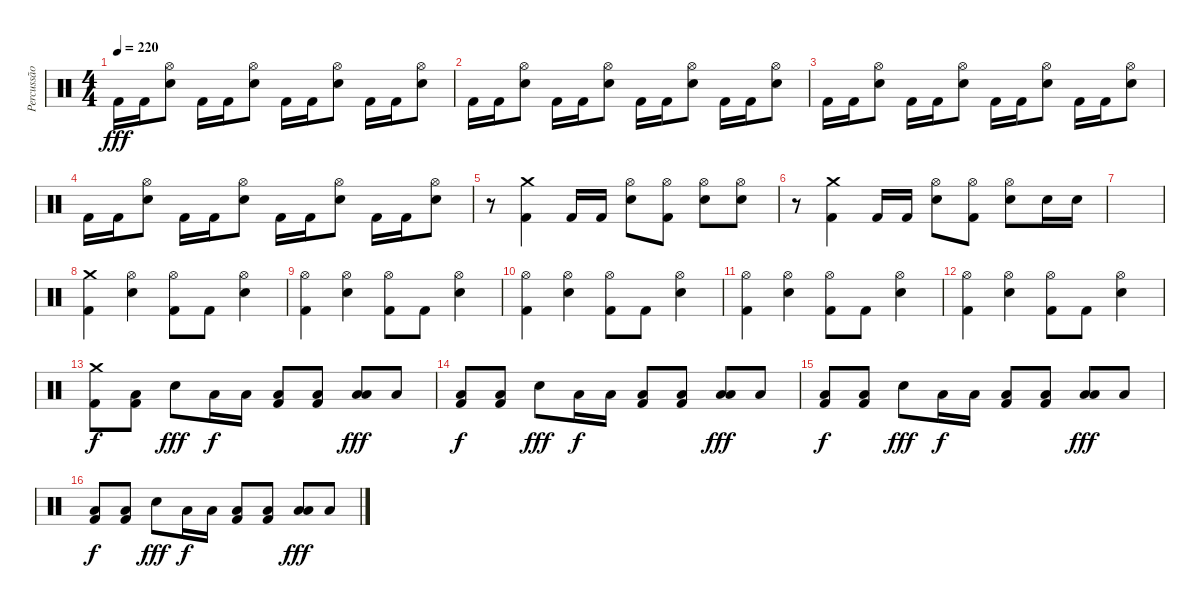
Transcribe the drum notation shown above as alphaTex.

\track ("Percussão" "Percussão") {instrument percussion}
\staff {score}
\articulation defaults
\ts (4 4)
\tempo 220
\clef neutral
\ks c "Kick (hit) 2".16{dy fff} "Kick (hit) 2".16
("Hi-Hat (open)" "Electric Snare (hit)").8 "Kick (hit) 2".16 "Kick (hit) 2".16 ("Hi-Hat (open)" "Electric Snare (hit)").8 "Kick (hit) 2".16 "Kick (hit) 2".16 ("Hi-Hat (open)" "Electric Snare (hit)").8 "Kick (hit) 2".16 "Kick (hit) 2".16 ("Hi-Hat (open)" "Electric Snare (hit)").8 |
"Kick (hit) 2".16 "Kick (hit) 2".16 ("Hi-Hat (open)" "Electric Snare (hit)").8 "Kick (hit) 2".16 "Kick (hit) 2".16 ("Hi-Hat (open)" "Electric Snare (hit)").8 "Kick (hit) 2".16 "Kick (hit) 2".16 ("Hi-Hat (open)" "Electric Snare (hit)").8 "Kick (hit) 2".16 "Kick (hit) 2".16 ("Hi-Hat (open)" "Electric Snare (hit)").8 |
"Kick (hit) 2".16 "Kick (hit) 2".16 ("Hi-Hat (open)" "Electric Snare (hit)").8 "Kick (hit) 2".16 "Kick (hit) 2".16 ("Hi-Hat (open)" "Electric Snare (hit)").8 "Kick (hit) 2".16 "Kick (hit) 2".16 ("Hi-Hat (open)" "Electric Snare (hit)").8 "Kick (hit) 2".16 "Kick (hit) 2".16 ("Hi-Hat (open)" "Electric Snare (hit)").8 |
"Kick (hit) 2".16 "Kick (hit) 2".16 ("Hi-Hat (open)" "Electric Snare (hit)").8 "Kick (hit) 2".16 "Kick (hit) 2".16 ("Hi-Hat (open)" "Electric Snare (hit)").8 "Kick (hit) 2".16 "Kick (hit) 2".16 ("Hi-Hat (open)" "Electric Snare (hit)").8 "Kick (hit) 2".16 "Kick (hit) 2".16 ("Hi-Hat (open)" "Electric Snare (hit)").8 |
r.8 ("Crash medium (hit)" "Kick (hit) 2").4 "Kick (hit) 2".16 "Kick (hit) 2".16 ("Hi-Hat (open)" "Electric Snare (hit)").8 ("Hi-Hat (open)" "Kick (hit) 2").8 ("Hi-Hat (open)" "Electric Snare (hit)").8 ("Hi-Hat (open)" "Electric Snare (hit)").8 |
r.8 ("Crash medium (hit)" "Kick (hit) 2").4 "Kick (hit) 2".16 "Kick (hit) 2".16 ("Hi-Hat (open)" "Electric Snare (hit)").8 ("Hi-Hat (open)" "Kick (hit) 2").8 ("Hi-Hat (open)" "Electric Snare (hit)").8 "Electric Snare (hit)".16 "Electric Snare (hit)".16 |
|
("Crash medium (hit)" "Kick (hit) 2").4 ("Hi-Hat (open)" "Electric Snare (hit)").4 ("Hi-Hat (open)" "Kick (hit) 2").8 "Kick (hit) 2".8 ("Hi-Hat (open)" "Electric Snare (hit)").4 |
("Hi-Hat (open)" "Kick (hit) 2").4 ("Hi-Hat (open)" "Electric Snare (hit)").4 ("Hi-Hat (open)" "Kick (hit) 2").8 "Kick (hit) 2".8 ("Hi-Hat (open)" "Electric Snare (hit)").4 |
("Hi-Hat (open)" "Kick (hit) 2").4 ("Hi-Hat (open)" "Electric Snare (hit)").4 ("Hi-Hat (open)" "Kick (hit) 2").8 "Kick (hit) 2".8 ("Hi-Hat (open)" "Electric Snare (hit)").4 |
("Hi-Hat (open)" "Kick (hit) 2").4 ("Hi-Hat (open)" "Electric Snare (hit)").4 ("Hi-Hat (open)" "Kick (hit) 2").8 "Kick (hit) 2".8 ("Hi-Hat (open)" "Electric Snare (hit)").4 |
("Hi-Hat (open)" "Kick (hit) 2").4 ("Hi-Hat (open)" "Electric Snare (hit)").4 ("Hi-Hat (open)" "Kick (hit) 2").8 "Kick (hit) 2".8 ("Hi-Hat (open)" "Electric Snare (hit)").4 |
("Crash medium (hit)" "Kick (hit) 2").8{dy f} ("Low Floor Tom (hit)" "Kick (hit) 2").8 "Electric Snare (hit)".8{dy fff} "Low Floor Tom (hit)".16{dy f} "Low Floor Tom (hit)".16 ("Low Floor Tom (hit)" "Kick (hit) 2").8 ("Low Floor Tom (hit)" "Kick (hit) 2").8 ("Low Floor Tom (hit)" "Low Tom (hit)").8{dy fff} "Low Floor Tom (hit)".8 |
("Low Floor Tom (hit)" "Kick (hit) 2").8{dy f} ("Low Floor Tom (hit)" "Kick (hit) 2").8 "Electric Snare (hit)".8{dy fff} "Low Floor Tom (hit)".16{dy f} "Low Floor Tom (hit)".16 ("Low Floor Tom (hit)" "Kick (hit) 2").8 ("Low Floor Tom (hit)" "Kick (hit) 2").8 ("Low Floor Tom (hit)" "Low Tom (hit)").8{dy fff} "Low Floor Tom (hit)".8 |
("Low Floor Tom (hit)" "Kick (hit) 2").8{dy f} ("Low Floor Tom (hit)" "Kick (hit) 2").8 "Electric Snare (hit)".8{dy fff} "Low Floor Tom (hit)".16{dy f} "Low Floor Tom (hit)".16 ("Low Floor Tom (hit)" "Kick (hit) 2").8 ("Low Floor Tom (hit)" "Kick (hit) 2").8 ("Low Floor Tom (hit)" "Low Tom (hit)").8{dy fff} "Low Floor Tom (hit)".8 |
("Low Floor Tom (hit)" "Kick (hit) 2").8{dy f} ("Low Floor Tom (hit)" "Kick (hit) 2").8 "Electric Snare (hit)".8{dy fff} "Low Floor Tom (hit)".16{dy f} "Low Floor Tom (hit)".16 ("Low Floor Tom (hit)" "Kick (hit) 2").8 ("Low Floor Tom (hit)" "Kick (hit) 2").8 ("Low Floor Tom (hit)" "Low Tom (hit)").8{dy fff} "Low Floor Tom (hit)".8
